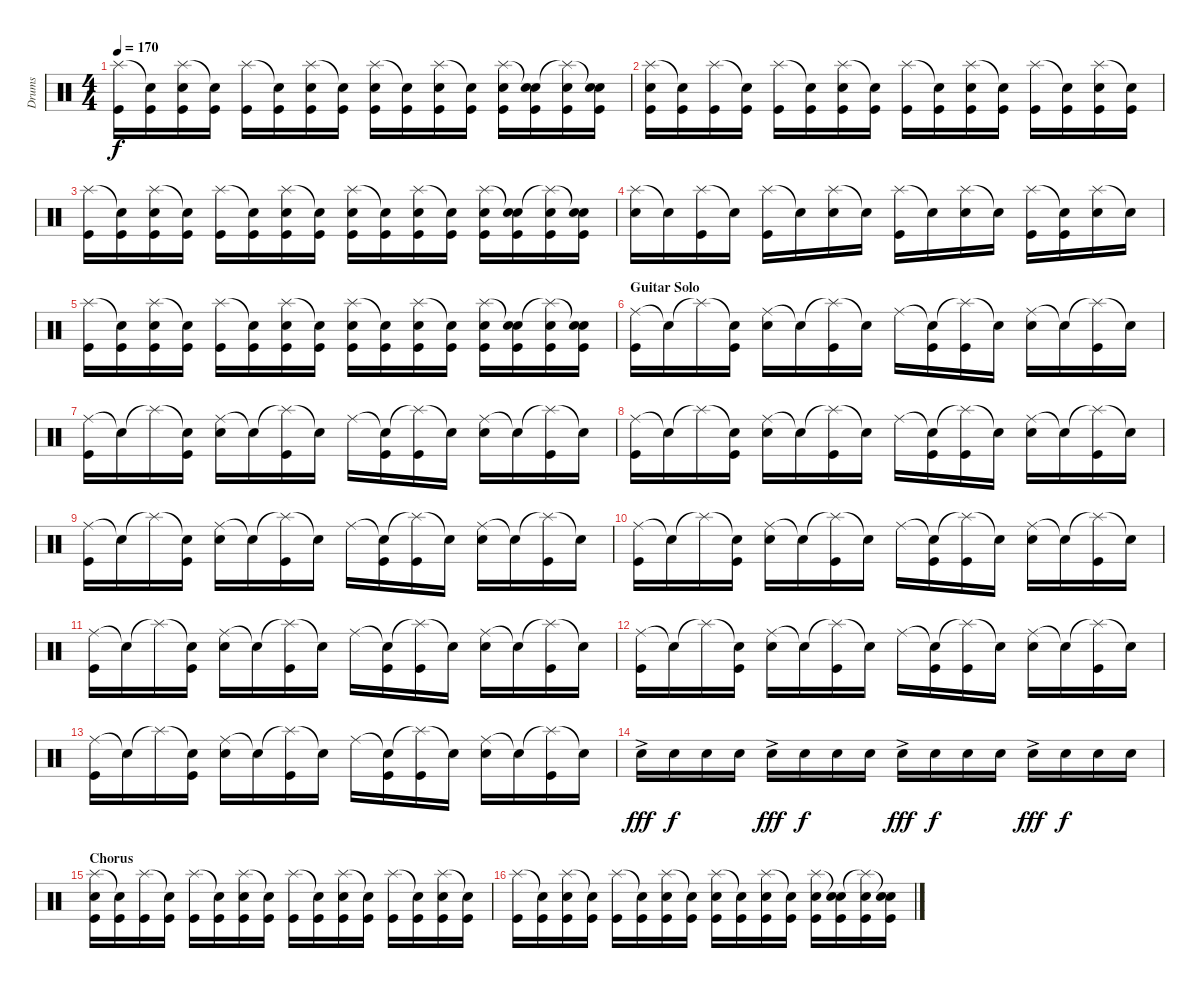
\track ("Drums" "Drums") {instrument percussion}
\staff {score}
\articulation defaults
\ts (4 4)
\tempo 170
\clef neutral
\ks c
("Splash (hit)" "Kick (hit)").16{dy f} ("Snare (hit)"{t} "Kick (hit)").16 ("Splash (hit)" "Electric Snare (hit)" "Kick (hit)").16 ("Snare (hit)"{t} "Kick (hit)").16 ("Splash (hit)" "Kick (hit)").16 ("Snare (hit)"{t} "Kick (hit)").16 ("Splash (hit)" "Electric Snare (hit)" "Kick (hit)").16 ("Snare (hit)"{t} "Kick (hit)").16 ("Splash (hit)" "Electric Snare (hit)" "Kick (hit)").16 ("Snare (hit)"{t} "Kick (hit)").16 ("Splash (hit)" "Electric Snare (hit)" "Kick (hit)").16 ("Snare (hit)"{t} "Kick (hit)").16 ("Splash (hit)" "Electric Snare (hit)" "Kick (hit)").16 ("Snare (hit)"{t} "Electric Snare (hit)" "Kick (hit)").16 ("Splash (hit)"{t} "Electric Snare (hit)" "Kick (hit)").16 ("Snare (hit)"{t} "Electric Snare (hit)" "Kick (hit)").16 |
("Splash (hit)" "Electric Snare (hit)" "Kick (hit)").16 ("Snare (hit)"{t} "Kick (hit)").16 ("Splash (hit)" "Kick (hit)").16 ("Snare (hit)"{t} "Kick (hit)").16 ("Splash (hit)" "Kick (hit)").16 ("Snare (hit)"{t} "Kick (hit)").16 ("Splash (hit)" "Electric Snare (hit)" "Kick (hit)").16 ("Snare (hit)"{t} "Kick (hit)").16 ("Splash (hit)" "Kick (hit)").16 ("Snare (hit)"{t} "Kick (hit)").16 ("Splash (hit)" "Electric Snare (hit)" "Kick (hit)").16 ("Snare (hit)"{t} "Kick (hit)").16 ("Splash (hit)" "Kick (hit)").16 ("Snare (hit)"{t} "Kick (hit)").16 ("Splash (hit)" "Electric Snare (hit)" "Kick (hit)").16 ("Snare (hit)"{t} "Kick (hit)").16 |
("Splash (hit)" "Kick (hit)").16 ("Snare (hit)"{t} "Kick (hit)").16 ("Splash (hit)" "Electric Snare (hit)" "Kick (hit)").16 ("Snare (hit)"{t} "Kick (hit)").16 ("Splash (hit)" "Kick (hit)").16 ("Snare (hit)"{t} "Kick (hit)").16 ("Splash (hit)" "Electric Snare (hit)" "Kick (hit)").16 ("Snare (hit)"{t} "Kick (hit)").16 ("Splash (hit)" "Electric Snare (hit)" "Kick (hit)").16 ("Snare (hit)"{t} "Kick (hit)").16 ("Splash (hit)" "Electric Snare (hit)" "Kick (hit)").16 ("Snare (hit)"{t} "Kick (hit)").16 ("Splash (hit)" "Electric Snare (hit)" "Kick (hit)").16 ("Snare (hit)"{t} "Electric Snare (hit)" "Kick (hit)").16 ("Splash (hit)"{t} "Electric Snare (hit)" "Kick (hit)").16 ("Snare (hit)"{t} "Electric Snare (hit)" "Kick (hit)").16 |
("Splash (hit)" "Electric Snare (hit)").16 "Snare (hit)"{t}.16 ("Splash (hit)" "Kick (hit)").16 "Snare (hit)"{t}.16 ("Splash (hit)" "Kick (hit)").16 "Snare (hit)"{t}.16 ("Splash (hit)" "Electric Snare (hit)").16 "Snare (hit)"{t}.16 ("Splash (hit)" "Kick (hit)").16 "Snare (hit)"{t}.16 ("Splash (hit)" "Electric Snare (hit)").16 "Snare (hit)"{t}.16 ("Splash (hit)" "Kick (hit)").16 ("Snare (hit)"{t} "Kick (hit)").16 ("Splash (hit)" "Electric Snare (hit)").16 "Snare (hit)"{t}.16 |
("Splash (hit)" "Kick (hit)").16 ("Snare (hit)"{t} "Kick (hit)").16 ("Splash (hit)" "Electric Snare (hit)" "Kick (hit)").16 ("Snare (hit)"{t} "Kick (hit)").16 ("Splash (hit)" "Kick (hit)").16 ("Snare (hit)"{t} "Kick (hit)").16 ("Splash (hit)" "Electric Snare (hit)" "Kick (hit)").16 ("Snare (hit)"{t} "Kick (hit)").16 ("Splash (hit)" "Electric Snare (hit)" "Kick (hit)").16 ("Snare (hit)"{t} "Kick (hit)").16 ("Splash (hit)" "Electric Snare (hit)" "Kick (hit)").16 ("Snare (hit)"{t} "Kick (hit)").16 ("Splash (hit)" "Electric Snare (hit)" "Kick (hit)").16 ("Snare (hit)"{t} "Electric Snare (hit)" "Kick (hit)").16 ("Splash (hit)"{t} "Electric Snare (hit)" "Kick (hit)").16 ("Snare (hit)"{t} "Electric Snare (hit)" "Kick (hit)").16 |
\section ("" "Guitar Solo")
("Ride (middle)" "Kick (hit)").16 "Snare (hit)"{t}.16 "Splash (hit)"{t}.16 ("Snare (hit)"{t} "Kick (hit)").16 ("Ride (middle)" "Electric Snare (hit)").16 "Snare (hit)"{t}.16 ("Splash (hit)"{t} "Kick (hit)").16 "Snare (hit)"{t}.16 "Ride (middle)".16 ("Snare (hit)"{t} "Kick (hit)").16 ("Splash (hit)"{t} "Kick (hit)").16 "Snare (hit)"{t}.16 ("Ride (middle)" "Electric Snare (hit)").16 "Snare (hit)"{t}.16 ("Splash (hit)"{t} "Kick (hit)").16 "Snare (hit)"{t}.16 |
("Ride (middle)" "Kick (hit)").16 "Snare (hit)"{t}.16 "Splash (hit)"{t}.16 ("Snare (hit)"{t} "Kick (hit)").16 ("Ride (middle)" "Electric Snare (hit)").16 "Snare (hit)"{t}.16 ("Splash (hit)"{t} "Kick (hit)").16 "Snare (hit)"{t}.16 "Ride (middle)".16 ("Snare (hit)"{t} "Kick (hit)").16 ("Splash (hit)"{t} "Kick (hit)").16 "Snare (hit)"{t}.16 ("Ride (middle)" "Electric Snare (hit)").16 "Snare (hit)"{t}.16 ("Splash (hit)"{t} "Kick (hit)").16 "Snare (hit)"{t}.16 |
("Ride (middle)" "Kick (hit)").16 "Snare (hit)"{t}.16 "Splash (hit)"{t}.16 ("Snare (hit)"{t} "Kick (hit)").16 ("Ride (middle)" "Electric Snare (hit)").16 "Snare (hit)"{t}.16 ("Splash (hit)"{t} "Kick (hit)").16 "Snare (hit)"{t}.16 "Ride (middle)".16 ("Snare (hit)"{t} "Kick (hit)").16 ("Splash (hit)"{t} "Kick (hit)").16 "Snare (hit)"{t}.16 ("Ride (middle)" "Electric Snare (hit)").16 "Snare (hit)"{t}.16 ("Splash (hit)"{t} "Kick (hit)").16 "Snare (hit)"{t}.16 |
("Ride (middle)" "Kick (hit)").16 "Snare (hit)"{t}.16 "Splash (hit)"{t}.16 ("Snare (hit)"{t} "Kick (hit)").16 ("Ride (middle)" "Electric Snare (hit)").16 "Snare (hit)"{t}.16 ("Splash (hit)"{t} "Kick (hit)").16 "Snare (hit)"{t}.16 "Ride (middle)".16 ("Snare (hit)"{t} "Kick (hit)").16 ("Splash (hit)"{t} "Kick (hit)").16 "Snare (hit)"{t}.16 ("Ride (middle)" "Electric Snare (hit)").16 "Snare (hit)"{t}.16 ("Splash (hit)"{t} "Kick (hit)").16 "Snare (hit)"{t}.16 |
("Ride (middle)" "Kick (hit)").16 "Snare (hit)"{t}.16 "Splash (hit)"{t}.16 ("Snare (hit)"{t} "Kick (hit)").16 ("Ride (middle)" "Electric Snare (hit)").16 "Snare (hit)"{t}.16 ("Splash (hit)"{t} "Kick (hit)").16 "Snare (hit)"{t}.16 "Ride (middle)".16 ("Snare (hit)"{t} "Kick (hit)").16 ("Splash (hit)"{t} "Kick (hit)").16 "Snare (hit)"{t}.16 ("Ride (middle)" "Electric Snare (hit)").16 "Snare (hit)"{t}.16 ("Splash (hit)"{t} "Kick (hit)").16 "Snare (hit)"{t}.16 |
("Ride (middle)" "Kick (hit)").16 "Snare (hit)"{t}.16 "Splash (hit)"{t}.16 ("Snare (hit)"{t} "Kick (hit)").16 ("Ride (middle)" "Electric Snare (hit)").16 "Snare (hit)"{t}.16 ("Splash (hit)"{t} "Kick (hit)").16 "Snare (hit)"{t}.16 "Ride (middle)".16 ("Snare (hit)"{t} "Kick (hit)").16 ("Splash (hit)"{t} "Kick (hit)").16 "Snare (hit)"{t}.16 ("Ride (middle)" "Electric Snare (hit)").16 "Snare (hit)"{t}.16 ("Splash (hit)"{t} "Kick (hit)").16 "Snare (hit)"{t}.16 |
("Ride (middle)" "Kick (hit)").16 "Snare (hit)"{t}.16 "Splash (hit)"{t}.16 ("Snare (hit)"{t} "Kick (hit)").16 ("Ride (middle)" "Electric Snare (hit)").16 "Snare (hit)"{t}.16 ("Splash (hit)"{t} "Kick (hit)").16 "Snare (hit)"{t}.16 "Ride (middle)".16 ("Snare (hit)"{t} "Kick (hit)").16 ("Splash (hit)"{t} "Kick (hit)").16 "Snare (hit)"{t}.16 ("Ride (middle)" "Electric Snare (hit)").16 "Snare (hit)"{t}.16 ("Splash (hit)"{t} "Kick (hit)").16 "Snare (hit)"{t}.16 |
("Ride (middle)" "Kick (hit)").16 "Snare (hit)"{t}.16 "Splash (hit)"{t}.16 ("Snare (hit)"{t} "Kick (hit)").16 ("Ride (middle)" "Electric Snare (hit)").16 "Snare (hit)"{t}.16 ("Splash (hit)"{t} "Kick (hit)").16 "Snare (hit)"{t}.16 "Ride (middle)".16 ("Snare (hit)"{t} "Kick (hit)").16 ("Splash (hit)"{t} "Kick (hit)").16 "Snare (hit)"{t}.16 ("Ride (middle)" "Electric Snare (hit)").16 "Snare (hit)"{t}.16 ("Splash (hit)"{t} "Kick (hit)").16 "Snare (hit)"{t}.16 |
"Electric Snare (hit)"{ac}.16{dy fff} "Electric Snare (hit)".16{dy f} "Electric Snare (hit)".16 "Electric Snare (hit)".16 "Electric Snare (hit)"{ac}.16{dy fff} "Electric Snare (hit)".16{dy f} "Electric Snare (hit)".16 "Electric Snare (hit)".16 "Electric Snare (hit)"{ac}.16{dy fff} "Electric Snare (hit)".16{dy f} "Electric Snare (hit)".16 "Electric Snare (hit)".16 "Electric Snare (hit)"{ac}.16{dy fff} "Electric Snare (hit)".16{dy f} "Electric Snare (hit)".16 "Electric Snare (hit)".16 |
\section ("" "Chorus")
("Splash (hit)" "Electric Snare (hit)" "Kick (hit)").16 ("Snare (hit)"{t} "Kick (hit)").16 ("Splash (hit)" "Kick (hit)").16 ("Snare (hit)"{t} "Kick (hit)").16 ("Splash (hit)" "Kick (hit)").16 ("Snare (hit)"{t} "Kick (hit)").16 ("Splash (hit)" "Electric Snare (hit)" "Kick (hit)").16 ("Snare (hit)"{t} "Kick (hit)").16 ("Splash (hit)" "Kick (hit)").16 ("Snare (hit)"{t} "Kick (hit)").16 ("Splash (hit)" "Electric Snare (hit)" "Kick (hit)").16 ("Snare (hit)"{t} "Kick (hit)").16 ("Splash (hit)" "Kick (hit)").16 ("Snare (hit)"{t} "Kick (hit)").16 ("Splash (hit)" "Electric Snare (hit)" "Kick (hit)").16 ("Snare (hit)"{t} "Kick (hit)").16 |
("Splash (hit)" "Kick (hit)").16 ("Snare (hit)"{t} "Kick (hit)").16 ("Splash (hit)" "Electric Snare (hit)" "Kick (hit)").16 ("Snare (hit)"{t} "Kick (hit)").16 ("Splash (hit)" "Kick (hit)").16 ("Snare (hit)"{t} "Kick (hit)").16 ("Splash (hit)" "Electric Snare (hit)" "Kick (hit)").16 ("Snare (hit)"{t} "Kick (hit)").16 ("Splash (hit)" "Electric Snare (hit)" "Kick (hit)").16 ("Snare (hit)"{t} "Kick (hit)").16 ("Splash (hit)" "Electric Snare (hit)" "Kick (hit)").16 ("Snare (hit)"{t} "Kick (hit)").16 ("Splash (hit)" "Electric Snare (hit)" "Kick (hit)").16 ("Snare (hit)"{t} "Electric Snare (hit)" "Kick (hit)").16 ("Splash (hit)"{t} "Electric Snare (hit)" "Kick (hit)").16 ("Snare (hit)"{t} "Electric Snare (hit)" "Kick (hit)").16
